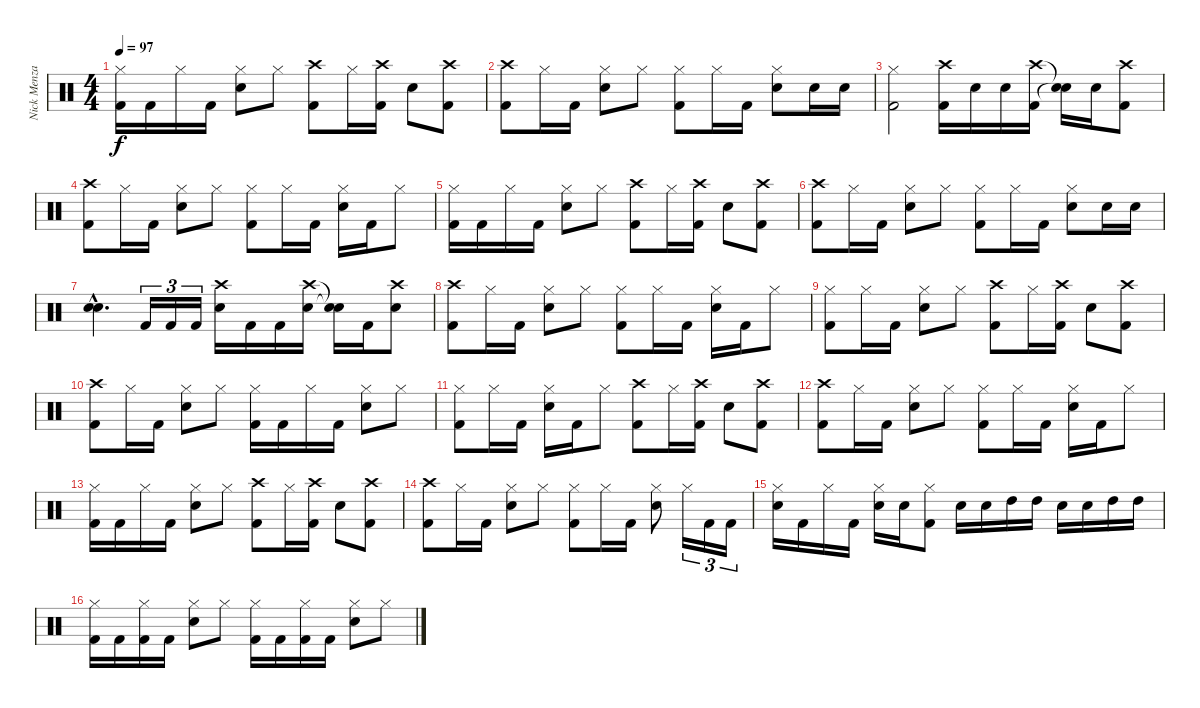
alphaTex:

\track ("Nick Menza" "Nick Menza") {instrument percussion}
\staff {score}
\articulation defaults
\ts (4 4)
\tempo 97
\clef neutral
\ks c
("Hi-Hat (closed)" "Kick (hit) 2").16{dy f} "Kick (hit) 2".16 "Hi-Hat (closed)".16 "Kick (hit) 2".16 ("Hi-Hat (closed)" "Electric Snare (hit)").8 "Hi-Hat (closed)".8 ("Crash high (hit)" "Kick (hit) 2").8 "Hi-Hat (closed)".16 ("Crash high (hit)" "Kick (hit) 2").16 "Electric Snare (hit)".8 ("Crash high (hit)" "Kick (hit) 2").8 |
("Crash high (hit)" "Kick (hit) 2").8 "Hi-Hat (closed)".16 "Kick (hit) 2".16 ("Hi-Hat (closed)" "Electric Snare (hit)").8 "Hi-Hat (closed)".8 ("Hi-Hat (closed)" "Kick (hit) 2").8 "Hi-Hat (closed)".16 "Kick (hit) 2".16 ("Hi-Hat (closed)" "Electric Snare (hit)").8 "Electric Snare (hit)".16 "Electric Snare (hit)".16 |
("Hi-Hat (closed)" "Kick (hit) 2").2 ("Crash high (hit)" "Kick (hit) 2").16 "Electric Snare (hit)".16 "Electric Snare (hit)".16 ("Crash high (hit)" "Kick (hit) 2").16 ("Snare (hit)"{t} "Snare (hit)"{t}).16 "Electric Snare (hit)".16 ("Crash high (hit)" "Kick (hit) 2").8 |
("Crash high (hit)" "Kick (hit) 2").8 "Hi-Hat (closed)".16 "Kick (hit) 2".16 ("Hi-Hat (closed)" "Electric Snare (hit)").8 "Hi-Hat (closed)".8 ("Hi-Hat (closed)" "Kick (hit) 2").8 "Hi-Hat (closed)".16 "Kick (hit) 2".16 ("Hi-Hat (closed)" "Electric Snare (hit)").16 "Kick (hit) 2".16 "Hi-Hat (closed)".8 |
("Hi-Hat (closed)" "Kick (hit) 2").16 "Kick (hit) 2".16 "Hi-Hat (closed)".16 "Kick (hit) 2".16 ("Hi-Hat (closed)" "Electric Snare (hit)").8 "Hi-Hat (closed)".8 ("Crash high (hit)" "Kick (hit) 2").8 "Hi-Hat (closed)".16 ("Crash high (hit)" "Kick (hit) 2").16 "Electric Snare (hit)".8 ("Crash high (hit)" "Kick (hit) 2").8 |
("Crash high (hit)" "Kick (hit) 2").8 "Hi-Hat (closed)".16 "Kick (hit) 2".16 ("Hi-Hat (closed)" "Electric Snare (hit)").8 "Hi-Hat (closed)".8 ("Hi-Hat (closed)" "Kick (hit) 2").8 "Hi-Hat (closed)".16 "Kick (hit) 2".16 ("Hi-Hat (closed)" "Electric Snare (hit)").8 "Electric Snare (hit)".16 "Electric Snare (hit)".16 |
("Electric Snare (hit)"{hac} "Electric Snare (hit)"{hac}).4{d} "Kick (hit) 2".16{tu (3 2)} "Kick (hit) 2".16{tu (3 2)} "Kick (hit) 2".16{tu (3 2)} ("Crash high (hit)" "Electric Snare (hit)").16 "Kick (hit) 2".16 "Kick (hit) 2".16 ("Crash high (hit)" "Electric Snare (hit)").16 ("Snare (hit)"{t} "Snare (hit)"{t}).16 "Kick (hit) 2".16 ("Crash high (hit)" "Electric Snare (hit)").8 |
("Crash high (hit)" "Kick (hit) 2").8 "Hi-Hat (closed)".16 "Kick (hit) 2".16 ("Hi-Hat (closed)" "Electric Snare (hit)").8 "Hi-Hat (closed)".8 ("Hi-Hat (closed)" "Kick (hit) 2").8 "Hi-Hat (closed)".16 "Kick (hit) 2".16 ("Hi-Hat (closed)" "Electric Snare (hit)").16 "Kick (hit) 2".16 "Hi-Hat (closed)".8 |
("Hi-Hat (closed)" "Kick (hit) 2").8 "Hi-Hat (closed)".16 "Kick (hit) 2".16 ("Hi-Hat (closed)" "Electric Snare (hit)").8 "Hi-Hat (closed)".8 ("Crash high (hit)" "Kick (hit) 2").8 "Hi-Hat (closed)".16 ("Crash high (hit)" "Kick (hit) 2").16 "Electric Snare (hit)".8 ("Crash high (hit)" "Kick (hit) 2").8 |
("Crash high (hit)" "Kick (hit) 2").8 "Hi-Hat (closed)".16 "Kick (hit) 2".16 ("Hi-Hat (closed)" "Electric Snare (hit)").8 "Hi-Hat (closed)".8 ("Hi-Hat (closed)" "Kick (hit) 2").16 "Kick (hit) 2".16 "Hi-Hat (closed)".16 "Kick (hit) 2".16 ("Hi-Hat (closed)" "Electric Snare (hit)").8 "Hi-Hat (closed)".8 |
("Hi-Hat (closed)" "Kick (hit) 2").8 "Hi-Hat (closed)".16 "Kick (hit) 2".16 ("Hi-Hat (closed)" "Electric Snare (hit)").16 "Kick (hit) 2".16 "Hi-Hat (closed)".8 ("Crash high (hit)" "Kick (hit) 2").8 "Hi-Hat (closed)".16 ("Crash high (hit)" "Kick (hit) 2").16 "Electric Snare (hit)".8 ("Crash high (hit)" "Kick (hit) 2").8 |
("Crash high (hit)" "Kick (hit) 2").8 "Hi-Hat (closed)".16 "Kick (hit) 2".16 ("Hi-Hat (closed)" "Electric Snare (hit)").8 "Hi-Hat (closed)".8 ("Hi-Hat (closed)" "Kick (hit) 2").8 "Hi-Hat (closed)".16 "Kick (hit) 2".16 ("Hi-Hat (closed)" "Electric Snare (hit)").16 "Kick (hit) 2".16 "Hi-Hat (closed)".8 |
("Hi-Hat (closed)" "Kick (hit) 2").16 "Kick (hit) 2".16 "Hi-Hat (closed)".16 "Kick (hit) 2".16 ("Hi-Hat (closed)" "Electric Snare (hit)").8 "Hi-Hat (closed)".8 ("Crash high (hit)" "Kick (hit) 2").8 "Hi-Hat (closed)".16 ("Crash high (hit)" "Kick (hit) 2").16 "Electric Snare (hit)".8 ("Crash high (hit)" "Kick (hit) 2").8 |
("Crash high (hit)" "Kick (hit) 2").8 "Hi-Hat (closed)".16 "Kick (hit) 2".16 ("Hi-Hat (closed)" "Electric Snare (hit)").8 "Hi-Hat (closed)".8 ("Hi-Hat (closed)" "Kick (hit) 2").8 "Hi-Hat (closed)".16 "Kick (hit) 2".16 ("Hi-Hat (closed)" "Electric Snare (hit)").8 "Hi-Hat (closed)".16{tu (3 2)} "Kick (hit) 2".16{tu (3 2)} "Kick (hit) 2".16{tu (3 2)} |
("Hi-Hat (closed)" "Electric Snare (hit)").16 "Kick (hit) 2".16 "Hi-Hat (closed)".16 "Kick (hit) 2".16 ("Hi-Hat (closed)" "Electric Snare (hit)").16 "Electric Snare (hit)".16 ("Hi-Hat (closed)" "Kick (hit) 2").8 "Electric Snare (hit)".16 "Electric Snare (hit)".16 "High Tom (hit)".16 "High Tom (hit)".16 "Electric Snare (hit)".16 "Electric Snare (hit)".16 "High Tom (hit)".16 "High Tom (hit)".16 |
("Hi-Hat (closed)" "Kick (hit) 2").16 "Kick (hit) 2".16 ("Hi-Hat (closed)" "Kick (hit) 2").16 "Kick (hit) 2".16 ("Hi-Hat (closed)" "Electric Snare (hit)").8 "Hi-Hat (closed)".8 ("Hi-Hat (closed)" "Kick (hit) 2").16 "Kick (hit) 2".16 ("Hi-Hat (closed)" "Kick (hit) 2").16 "Kick (hit) 2".16 ("Hi-Hat (closed)" "Electric Snare (hit)").8 "Hi-Hat (closed)".8
